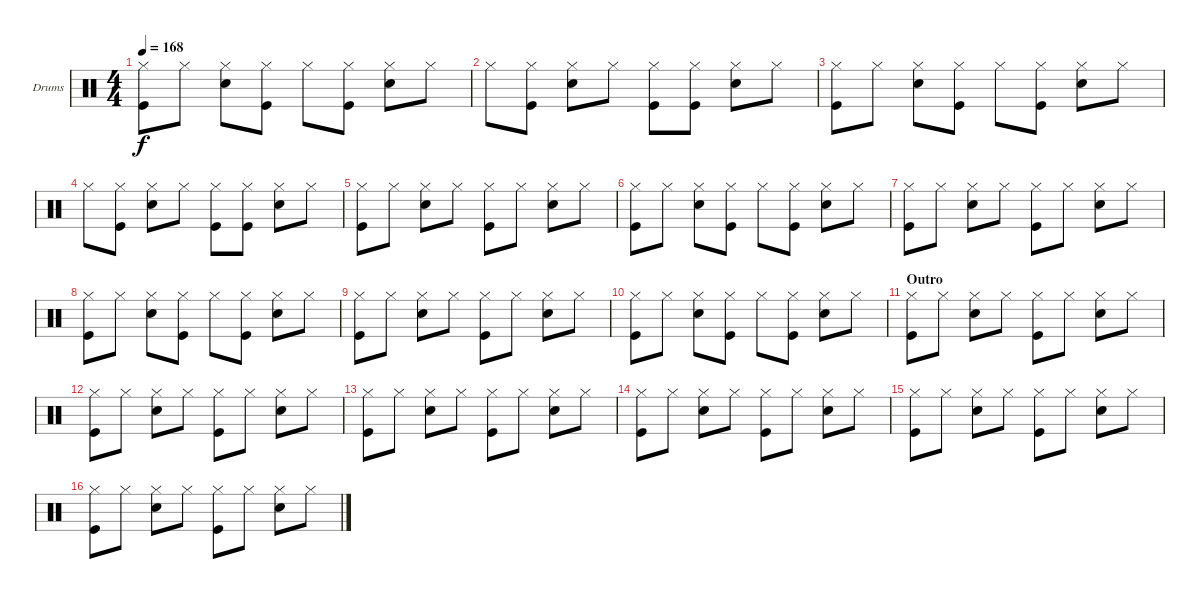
\bracketExtendMode groupsimilarinstruments
\firstSystemTrackNameOrientation horizontal
\otherSystemsTrackNameOrientation horizontal
\track ("Drumkit" "Drums") {instrument percussion}
\staff {score}
\articulation defaults
\ts (4 4)
\tempo 168
\clef neutral
\ks c
("Kick (hit)" "Hi-Hat (closed)").8{dy f} "Hi-Hat (closed)".8 ("Snare (hit) 2" "Hi-Hat (closed)").8 ("Kick (hit)" "Hi-Hat (closed)").8 "Hi-Hat (closed)".8 ("Kick (hit)" "Hi-Hat (closed)").8 ("Snare (hit) 2" "Hi-Hat (closed)").8 "Hi-Hat (closed)".8 |
"Hi-Hat (closed)".8 ("Hi-Hat (closed)" "Kick (hit)").8 ("Snare (hit) 2" "Hi-Hat (closed)").8 "Hi-Hat (closed)".8 ("Hi-Hat (closed)" "Kick (hit)").8 ("Kick (hit)" "Hi-Hat (closed)").8 ("Snare (hit) 2" "Hi-Hat (closed)").8 "Hi-Hat (closed)".8 |
("Kick (hit)" "Hi-Hat (closed)").8 "Hi-Hat (closed)".8 ("Snare (hit) 2" "Hi-Hat (closed)").8 ("Kick (hit)" "Hi-Hat (closed)").8 "Hi-Hat (closed)".8 ("Kick (hit)" "Hi-Hat (closed)").8 ("Snare (hit) 2" "Hi-Hat (closed)").8 "Hi-Hat (closed)".8 |
"Hi-Hat (closed)".8 ("Hi-Hat (closed)" "Kick (hit)").8 ("Snare (hit) 2" "Hi-Hat (closed)").8 "Hi-Hat (closed)".8 ("Hi-Hat (closed)" "Kick (hit)").8 ("Kick (hit)" "Hi-Hat (closed)").8 ("Snare (hit) 2" "Hi-Hat (closed)").8 "Hi-Hat (closed)".8 |
("Kick (hit)" "Hi-Hat (closed)").8 "Hi-Hat (closed)".8 ("Snare (hit) 2" "Hi-Hat (closed)").8 "Hi-Hat (closed)".8 ("Hi-Hat (closed)" "Kick (hit)").8 "Hi-Hat (closed)".8 ("Snare (hit) 2" "Hi-Hat (closed)").8 "Hi-Hat (closed)".8 |
("Kick (hit)" "Hi-Hat (closed)").8 "Hi-Hat (closed)".8 ("Snare (hit) 2" "Hi-Hat (closed)").8 ("Kick (hit)" "Hi-Hat (closed)").8 "Hi-Hat (closed)".8 ("Kick (hit)" "Hi-Hat (closed)").8 ("Snare (hit) 2" "Hi-Hat (closed)").8 "Hi-Hat (closed)".8 |
("Kick (hit)" "Hi-Hat (closed)").8 "Hi-Hat (closed)".8 ("Snare (hit) 2" "Hi-Hat (closed)").8 "Hi-Hat (closed)".8 ("Hi-Hat (closed)" "Kick (hit)").8 "Hi-Hat (closed)".8 ("Snare (hit) 2" "Hi-Hat (closed)").8 "Hi-Hat (closed)".8 |
("Kick (hit)" "Hi-Hat (closed)").8 "Hi-Hat (closed)".8 ("Snare (hit) 2" "Hi-Hat (closed)").8 ("Kick (hit)" "Hi-Hat (closed)").8 "Hi-Hat (closed)".8 ("Kick (hit)" "Hi-Hat (closed)").8 ("Snare (hit) 2" "Hi-Hat (closed)").8 "Hi-Hat (closed)".8 |
("Kick (hit)" "Hi-Hat (closed)").8 "Hi-Hat (closed)".8 ("Snare (hit) 2" "Hi-Hat (closed)").8 "Hi-Hat (closed)".8 ("Hi-Hat (closed)" "Kick (hit)").8 "Hi-Hat (closed)".8 ("Snare (hit) 2" "Hi-Hat (closed)").8 "Hi-Hat (closed)".8 |
("Kick (hit)" "Hi-Hat (closed)").8 "Hi-Hat (closed)".8 ("Snare (hit) 2" "Hi-Hat (closed)").8 ("Kick (hit)" "Hi-Hat (closed)").8 "Hi-Hat (closed)".8 ("Kick (hit)" "Hi-Hat (closed)").8 ("Snare (hit) 2" "Hi-Hat (closed)").8 "Hi-Hat (closed)".8 |
\section ("" "Outro")
("Kick (hit)" "Hi-Hat (closed)").8 "Hi-Hat (closed)".8 ("Snare (hit) 2" "Hi-Hat (closed)").8 "Hi-Hat (closed)".8 ("Hi-Hat (closed)" "Kick (hit)").8 "Hi-Hat (closed)".8 ("Snare (hit) 2" "Hi-Hat (closed)").8 "Hi-Hat (closed)".8 |
("Kick (hit)" "Hi-Hat (closed)").8 "Hi-Hat (closed)".8 ("Snare (hit) 2" "Hi-Hat (closed)").8 "Hi-Hat (closed)".8 ("Kick (hit)" "Hi-Hat (closed)").8 "Hi-Hat (closed)".8 ("Snare (hit) 2" "Hi-Hat (closed)").8 "Hi-Hat (closed)".8 |
("Kick (hit)" "Hi-Hat (closed)").8 "Hi-Hat (closed)".8 ("Snare (hit) 2" "Hi-Hat (closed)").8 "Hi-Hat (closed)".8 ("Kick (hit)" "Hi-Hat (closed)").8 "Hi-Hat (closed)".8 ("Snare (hit) 2" "Hi-Hat (closed)").8 "Hi-Hat (closed)".8 |
("Kick (hit)" "Hi-Hat (closed)").8 "Hi-Hat (closed)".8 ("Snare (hit) 2" "Hi-Hat (closed)").8 "Hi-Hat (closed)".8 ("Kick (hit)" "Hi-Hat (closed)").8 "Hi-Hat (closed)".8 ("Snare (hit) 2" "Hi-Hat (closed)").8 "Hi-Hat (closed)".8 |
("Kick (hit)" "Hi-Hat (closed)").8 "Hi-Hat (closed)".8 ("Snare (hit) 2" "Hi-Hat (closed)").8 "Hi-Hat (closed)".8 ("Kick (hit)" "Hi-Hat (closed)").8 "Hi-Hat (closed)".8 ("Snare (hit) 2" "Hi-Hat (closed)").8 "Hi-Hat (closed)".8 |
("Kick (hit)" "Hi-Hat (closed)").8 "Hi-Hat (closed)".8 ("Snare (hit) 2" "Hi-Hat (closed)").8 "Hi-Hat (closed)".8 ("Kick (hit)" "Hi-Hat (closed)").8 "Hi-Hat (closed)".8 ("Snare (hit) 2" "Hi-Hat (closed)").8 "Hi-Hat (closed)".8
